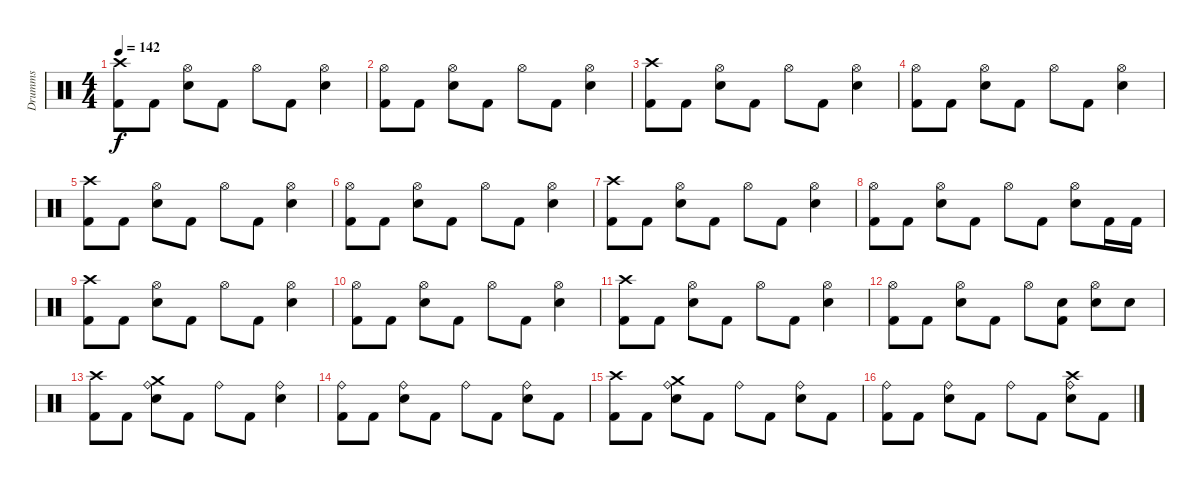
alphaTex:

\track ("Drumms" "Drumms") {instrument percussion}
\staff {score}
\articulation defaults
\ts (4 4)
\tempo 142
\clef neutral
\ks c
("Kick (hit) 2" "Crash high (hit)").8{dy f} "Kick (hit) 2".8 ("Electric Snare (hit)" "Hi-Hat (open)").8 "Kick (hit) 2".8 "Hi-Hat (open)".8 "Kick (hit) 2".8 ("Electric Snare (hit)" "Hi-Hat (open)").4 |
("Kick (hit) 2" "Hi-Hat (open)").8 "Kick (hit) 2".8 ("Electric Snare (hit)" "Hi-Hat (open)").8 "Kick (hit) 2".8 "Hi-Hat (open)".8 "Kick (hit) 2".8 ("Electric Snare (hit)" "Hi-Hat (open)").4 |
("Kick (hit) 2" "Crash high (hit)").8 "Kick (hit) 2".8 ("Electric Snare (hit)" "Hi-Hat (open)").8 "Kick (hit) 2".8 "Hi-Hat (open)".8 "Kick (hit) 2".8 ("Electric Snare (hit)" "Hi-Hat (open)").4 |
("Kick (hit) 2" "Hi-Hat (open)").8 "Kick (hit) 2".8 ("Electric Snare (hit)" "Hi-Hat (open)").8 "Kick (hit) 2".8 "Hi-Hat (open)".8 "Kick (hit) 2".8 ("Electric Snare (hit)" "Hi-Hat (open)").4 |
("Kick (hit) 2" "Crash high (hit)").8 "Kick (hit) 2".8 ("Electric Snare (hit)" "Hi-Hat (open)").8 "Kick (hit) 2".8 "Hi-Hat (open)".8 "Kick (hit) 2".8 ("Electric Snare (hit)" "Hi-Hat (open)").4 |
("Kick (hit) 2" "Hi-Hat (open)").8 "Kick (hit) 2".8 ("Electric Snare (hit)" "Hi-Hat (open)").8 "Kick (hit) 2".8 "Hi-Hat (open)".8 "Kick (hit) 2".8 ("Electric Snare (hit)" "Hi-Hat (open)").4 |
("Kick (hit) 2" "Crash high (hit)").8 "Kick (hit) 2".8 ("Electric Snare (hit)" "Hi-Hat (open)").8 "Kick (hit) 2".8 "Hi-Hat (open)".8 "Kick (hit) 2".8 ("Electric Snare (hit)" "Hi-Hat (open)").4 |
("Kick (hit) 2" "Hi-Hat (open)").8 "Kick (hit) 2".8 ("Electric Snare (hit)" "Hi-Hat (open)").8 "Kick (hit) 2".8 "Hi-Hat (open)".8 "Kick (hit) 2".8 ("Electric Snare (hit)" "Hi-Hat (open)").8 "Kick (hit) 2".16 "Kick (hit) 2".16 |
("Kick (hit) 2" "Crash high (hit)").8 "Kick (hit) 2".8 ("Electric Snare (hit)" "Hi-Hat (open)").8 "Kick (hit) 2".8 "Hi-Hat (open)".8 "Kick (hit) 2".8 ("Electric Snare (hit)" "Hi-Hat (open)").4 |
("Kick (hit) 2" "Hi-Hat (open)").8 "Kick (hit) 2".8 ("Electric Snare (hit)" "Hi-Hat (open)").8 "Kick (hit) 2".8 "Hi-Hat (open)".8 "Kick (hit) 2".8 ("Electric Snare (hit)" "Hi-Hat (open)").4 |
("Kick (hit) 2" "Crash high (hit)").8 "Kick (hit) 2".8 ("Electric Snare (hit)" "Hi-Hat (open)").8 "Kick (hit) 2".8 "Hi-Hat (open)".8 "Kick (hit) 2".8 ("Electric Snare (hit)" "Hi-Hat (open)").4 |
("Kick (hit) 2" "Hi-Hat (open)").8 "Kick (hit) 2".8 ("Electric Snare (hit)" "Hi-Hat (open)").8 "Kick (hit) 2".8 "Hi-Hat (open)".8 ("Kick (hit) 2" "Electric Snare (hit)").8 ("Electric Snare (hit)" "Hi-Hat (open)").8 "Electric Snare (hit)".8 |
\section ("" "")
("Kick (hit) 2" "Crash high (hit)").8 "Kick (hit) 2".8 ("Electric Snare (hit)" "Crash medium (hit)" "Ride (bell)").8 "Kick (hit) 2".8 "Ride (bell)".8 "Kick (hit) 2".8 ("Electric Snare (hit)" "Ride (bell)").4 |
("Kick (hit) 2" "Ride (bell)").8 "Kick (hit) 2".8 ("Electric Snare (hit)" "Ride (bell)").8 "Kick (hit) 2".8 "Ride (bell)".8 "Kick (hit) 2".8 ("Electric Snare (hit)" "Ride (bell)").8 "Kick (hit) 2".8 |
("Kick (hit) 2" "Crash high (hit)").8 "Kick (hit) 2".8 ("Electric Snare (hit)" "Crash medium (hit)" "Ride (bell)").8 "Kick (hit) 2".8 "Ride (bell)".8 "Kick (hit) 2".8 ("Electric Snare (hit)" "Ride (bell)").8 "Kick (hit) 2".8 |
("Kick (hit) 2" "Ride (bell)").8 "Kick (hit) 2".8 ("Electric Snare (hit)" "Ride (bell)").8 "Kick (hit) 2".8 "Ride (bell)".8 "Kick (hit) 2".8 ("Electric Snare (hit)" "Ride (bell)" "Crash high (hit)").8 "Kick (hit) 2".8
